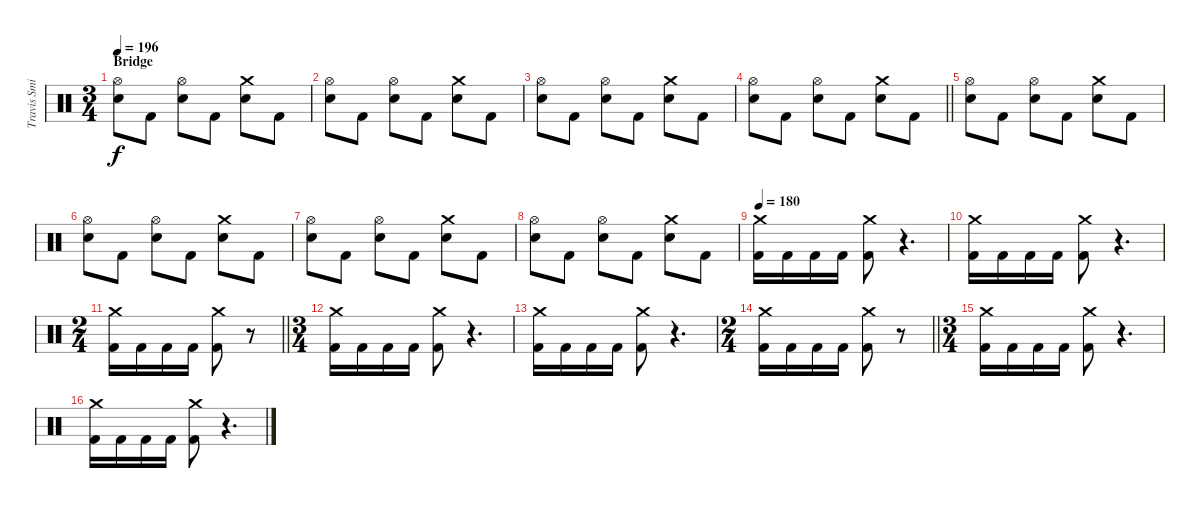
\track ("Travis Smith" "Travis Smi") {instrument percussion}
\staff {score}
\articulation defaults
\ts (3 4)
\section ("" "Bridge")
\tempo 196
\clef neutral
\ks c
("Hi-Hat (open)" "Electric Snare (hit)").8{dy f} "Kick (hit) 2".8 ("Hi-Hat (open)" "Electric Snare (hit)").8 "Kick (hit) 2".8 ("Crash medium (hit)" "Electric Snare (hit)").8 "Kick (hit) 2".8 |
("Hi-Hat (open)" "Electric Snare (hit)").8 "Kick (hit) 2".8 ("Hi-Hat (open)" "Electric Snare (hit)").8 "Kick (hit) 2".8 ("Crash medium (hit)" "Electric Snare (hit)").8 "Kick (hit) 2".8 |
("Hi-Hat (open)" "Electric Snare (hit)").8 "Kick (hit) 2".8 ("Hi-Hat (open)" "Electric Snare (hit)").8 "Kick (hit) 2".8 ("Crash medium (hit)" "Electric Snare (hit)").8 "Kick (hit) 2".8 |
\barLineRight lightlight
("Hi-Hat (open)" "Electric Snare (hit)").8 "Kick (hit) 2".8 ("Hi-Hat (open)" "Electric Snare (hit)").8 "Kick (hit) 2".8 ("Crash medium (hit)" "Electric Snare (hit)").8 "Kick (hit) 2".8 |
("Hi-Hat (open)" "Electric Snare (hit)").8 "Kick (hit) 2".8 ("Hi-Hat (open)" "Electric Snare (hit)").8 "Kick (hit) 2".8 ("Crash medium (hit)" "Electric Snare (hit)").8 "Kick (hit) 2".8 |
("Hi-Hat (open)" "Electric Snare (hit)").8 "Kick (hit) 2".8 ("Hi-Hat (open)" "Electric Snare (hit)").8 "Kick (hit) 2".8 ("Crash medium (hit)" "Electric Snare (hit)").8 "Kick (hit) 2".8 |
("Hi-Hat (open)" "Electric Snare (hit)").8 "Kick (hit) 2".8 ("Hi-Hat (open)" "Electric Snare (hit)").8 "Kick (hit) 2".8 ("Crash medium (hit)" "Electric Snare (hit)").8 "Kick (hit) 2".8 |
("Hi-Hat (open)" "Electric Snare (hit)").8 "Kick (hit) 2".8 ("Hi-Hat (open)" "Electric Snare (hit)").8 "Kick (hit) 2".8 ("Crash medium (hit)" "Electric Snare (hit)").8 "Kick (hit) 2".8 |
\tempo 180
("Crash medium (hit)" "Kick (hit) 2").16 "Kick (hit) 2".16 "Kick (hit) 2".16 "Kick (hit) 2".16 ("Crash medium (hit)" "Kick (hit) 2").8 r.4{d volume 0} |
("Crash medium (hit)" "Kick (hit) 2").16{volume 13} "Kick (hit) 2".16 "Kick (hit) 2".16 "Kick (hit) 2".16 ("Crash medium (hit)" "Kick (hit) 2").8 r.4{d volume 0} |
\ts (2 4)
\barLineRight lightlight
("Crash medium (hit)" "Kick (hit) 2").16{volume 13} "Kick (hit) 2".16 "Kick (hit) 2".16 "Kick (hit) 2".16 ("Crash medium (hit)" "Kick (hit) 2").8 r.8{volume 0} |
\ts (3 4)
("Crash medium (hit)" "Kick (hit) 2").16{volume 13} "Kick (hit) 2".16 "Kick (hit) 2".16 "Kick (hit) 2".16 ("Crash medium (hit)" "Kick (hit) 2").8 r.4{d volume 0} |
("Crash medium (hit)" "Kick (hit) 2").16{volume 13} "Kick (hit) 2".16 "Kick (hit) 2".16 "Kick (hit) 2".16 ("Crash medium (hit)" "Kick (hit) 2").8 r.4{d volume 0} |
\ts (2 4)
\barLineRight lightlight
("Crash medium (hit)" "Kick (hit) 2").16{volume 13} "Kick (hit) 2".16 "Kick (hit) 2".16 "Kick (hit) 2".16 ("Crash medium (hit)" "Kick (hit) 2").8 r.8{volume 0} |
\ts (3 4)
("Crash medium (hit)" "Kick (hit) 2").16{volume 13} "Kick (hit) 2".16 "Kick (hit) 2".16 "Kick (hit) 2".16 ("Crash medium (hit)" "Kick (hit) 2").8 r.4{d volume 0} |
("Crash medium (hit)" "Kick (hit) 2").16{volume 13} "Kick (hit) 2".16 "Kick (hit) 2".16 "Kick (hit) 2".16 ("Crash medium (hit)" "Kick (hit) 2").8 r.4{d volume 0}
